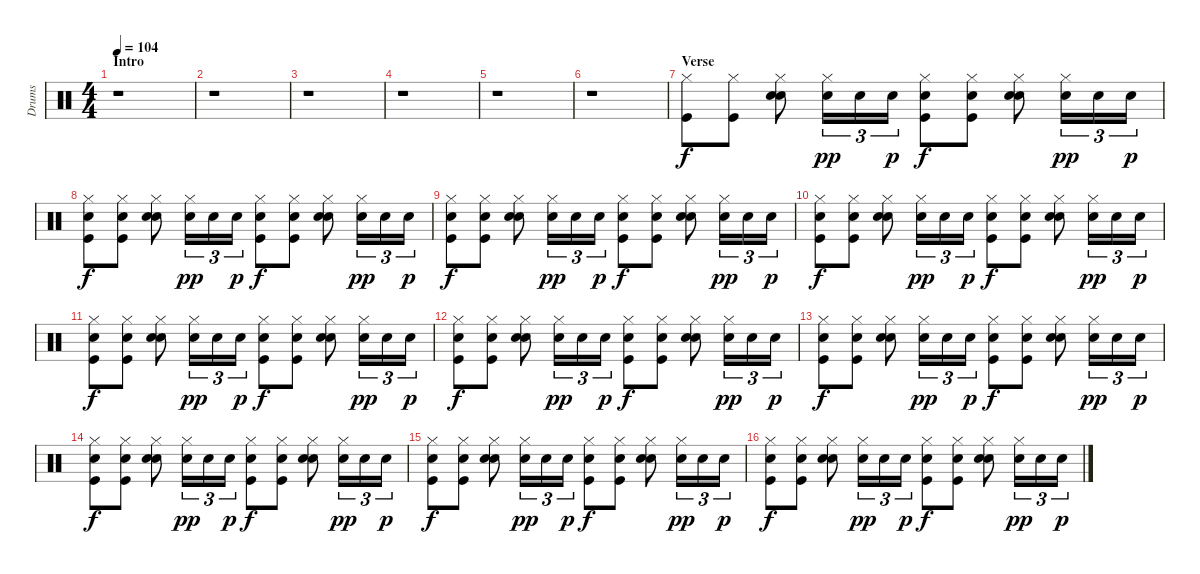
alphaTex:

\track ("Drums" "Drums") {instrument percussion}
\staff {score}
\articulation defaults
\ts (4 4)
\section ("" "Intro")
\tempo 104
\clef neutral
\ks c
r.1{dy f} |
r.1 |
r.1 |
r.1 |
r.1 |
r.1 |
\section ("" "Verse")
("Hi-Hat (closed)" "Kick (hit)").8 ("Hi-Hat (closed)" "Kick (hit)").8 ("Hi-Hat (closed)" "Hand Clap (hit)" "Electric Snare (hit)").8 ("Hi-Hat (closed)" "Electric Snare (hit)").16{tu (3 2) dy pp} "Electric Snare (hit)".16{tu (3 2)} "Electric Snare (hit)".16{tu (3 2) dy p} ("Hi-Hat (closed)" "Electric Snare (hit)" "Kick (hit)").8{dy f} ("Hi-Hat (closed)" "Electric Snare (hit)" "Kick (hit)").8 ("Hi-Hat (closed)" "Hand Clap (hit)" "Electric Snare (hit)").8 ("Hi-Hat (closed)" "Electric Snare (hit)").16{tu (3 2) dy pp} "Electric Snare (hit)".16{tu (3 2)} "Electric Snare (hit)".16{tu (3 2) dy p} |
("Hi-Hat (closed)" "Electric Snare (hit)" "Kick (hit)").8{dy f} ("Hi-Hat (closed)" "Electric Snare (hit)" "Kick (hit)").8 ("Hi-Hat (closed)" "Hand Clap (hit)" "Electric Snare (hit)").8 ("Hi-Hat (closed)" "Electric Snare (hit)").16{tu (3 2) dy pp} "Electric Snare (hit)".16{tu (3 2)} "Electric Snare (hit)".16{tu (3 2) dy p} ("Hi-Hat (closed)" "Electric Snare (hit)" "Kick (hit)").8{dy f} ("Hi-Hat (closed)" "Electric Snare (hit)" "Kick (hit)").8 ("Hi-Hat (closed)" "Hand Clap (hit)" "Electric Snare (hit)").8 ("Hi-Hat (closed)" "Electric Snare (hit)").16{tu (3 2) dy pp} "Electric Snare (hit)".16{tu (3 2)} "Electric Snare (hit)".16{tu (3 2) dy p} |
("Hi-Hat (closed)" "Electric Snare (hit)" "Kick (hit)").8{dy f} ("Hi-Hat (closed)" "Electric Snare (hit)" "Kick (hit)").8 ("Hi-Hat (closed)" "Hand Clap (hit)" "Electric Snare (hit)").8 ("Hi-Hat (closed)" "Electric Snare (hit)").16{tu (3 2) dy pp} "Electric Snare (hit)".16{tu (3 2)} "Electric Snare (hit)".16{tu (3 2) dy p} ("Hi-Hat (closed)" "Electric Snare (hit)" "Kick (hit)").8{dy f} ("Hi-Hat (closed)" "Electric Snare (hit)" "Kick (hit)").8 ("Hi-Hat (closed)" "Hand Clap (hit)" "Electric Snare (hit)").8 ("Hi-Hat (closed)" "Electric Snare (hit)").16{tu (3 2) dy pp} "Electric Snare (hit)".16{tu (3 2)} "Electric Snare (hit)".16{tu (3 2) dy p} |
("Hi-Hat (closed)" "Electric Snare (hit)" "Kick (hit)").8{dy f} ("Hi-Hat (closed)" "Electric Snare (hit)" "Kick (hit)").8 ("Hi-Hat (closed)" "Hand Clap (hit)" "Electric Snare (hit)").8 ("Hi-Hat (closed)" "Electric Snare (hit)").16{tu (3 2) dy pp} "Electric Snare (hit)".16{tu (3 2)} "Electric Snare (hit)".16{tu (3 2) dy p} ("Hi-Hat (closed)" "Electric Snare (hit)" "Kick (hit)").8{dy f} ("Hi-Hat (closed)" "Electric Snare (hit)" "Kick (hit)").8 ("Hi-Hat (closed)" "Hand Clap (hit)" "Electric Snare (hit)").8 ("Hi-Hat (closed)" "Electric Snare (hit)").16{tu (3 2) dy pp} "Electric Snare (hit)".16{tu (3 2)} "Electric Snare (hit)".16{tu (3 2) dy p} |
("Hi-Hat (closed)" "Electric Snare (hit)" "Kick (hit)").8{dy f} ("Hi-Hat (closed)" "Electric Snare (hit)" "Kick (hit)").8 ("Hi-Hat (closed)" "Hand Clap (hit)" "Electric Snare (hit)").8 ("Hi-Hat (closed)" "Electric Snare (hit)").16{tu (3 2) dy pp} "Electric Snare (hit)".16{tu (3 2)} "Electric Snare (hit)".16{tu (3 2) dy p} ("Hi-Hat (closed)" "Electric Snare (hit)" "Kick (hit)").8{dy f} ("Hi-Hat (closed)" "Electric Snare (hit)" "Kick (hit)").8 ("Hi-Hat (closed)" "Hand Clap (hit)" "Electric Snare (hit)").8 ("Hi-Hat (closed)" "Electric Snare (hit)").16{tu (3 2) dy pp} "Electric Snare (hit)".16{tu (3 2)} "Electric Snare (hit)".16{tu (3 2) dy p} |
("Hi-Hat (closed)" "Electric Snare (hit)" "Kick (hit)").8{dy f} ("Hi-Hat (closed)" "Electric Snare (hit)" "Kick (hit)").8 ("Hi-Hat (closed)" "Hand Clap (hit)" "Electric Snare (hit)").8 ("Hi-Hat (closed)" "Electric Snare (hit)").16{tu (3 2) dy pp} "Electric Snare (hit)".16{tu (3 2)} "Electric Snare (hit)".16{tu (3 2) dy p} ("Hi-Hat (closed)" "Electric Snare (hit)" "Kick (hit)").8{dy f} ("Hi-Hat (closed)" "Electric Snare (hit)" "Kick (hit)").8 ("Hi-Hat (closed)" "Hand Clap (hit)" "Electric Snare (hit)").8 ("Hi-Hat (closed)" "Electric Snare (hit)").16{tu (3 2) dy pp} "Electric Snare (hit)".16{tu (3 2)} "Electric Snare (hit)".16{tu (3 2) dy p} |
("Hi-Hat (closed)" "Electric Snare (hit)" "Kick (hit)").8{dy f} ("Hi-Hat (closed)" "Electric Snare (hit)" "Kick (hit)").8 ("Hi-Hat (closed)" "Hand Clap (hit)" "Electric Snare (hit)").8 ("Hi-Hat (closed)" "Electric Snare (hit)").16{tu (3 2) dy pp} "Electric Snare (hit)".16{tu (3 2)} "Electric Snare (hit)".16{tu (3 2) dy p} ("Hi-Hat (closed)" "Electric Snare (hit)" "Kick (hit)").8{dy f} ("Hi-Hat (closed)" "Electric Snare (hit)" "Kick (hit)").8 ("Hi-Hat (closed)" "Hand Clap (hit)" "Electric Snare (hit)").8 ("Hi-Hat (closed)" "Electric Snare (hit)").16{tu (3 2) dy pp} "Electric Snare (hit)".16{tu (3 2)} "Electric Snare (hit)".16{tu (3 2) dy p} |
("Hi-Hat (closed)" "Electric Snare (hit)" "Kick (hit)").8{dy f} ("Hi-Hat (closed)" "Electric Snare (hit)" "Kick (hit)").8 ("Hi-Hat (closed)" "Hand Clap (hit)" "Electric Snare (hit)").8 ("Hi-Hat (closed)" "Electric Snare (hit)").16{tu (3 2) dy pp} "Electric Snare (hit)".16{tu (3 2)} "Electric Snare (hit)".16{tu (3 2) dy p} ("Hi-Hat (closed)" "Electric Snare (hit)" "Kick (hit)").8{dy f} ("Hi-Hat (closed)" "Electric Snare (hit)" "Kick (hit)").8 ("Hi-Hat (closed)" "Hand Clap (hit)" "Electric Snare (hit)").8 ("Hi-Hat (closed)" "Electric Snare (hit)").16{tu (3 2) dy pp} "Electric Snare (hit)".16{tu (3 2)} "Electric Snare (hit)".16{tu (3 2) dy p} |
("Hi-Hat (closed)" "Electric Snare (hit)" "Kick (hit)").8{dy f} ("Hi-Hat (closed)" "Electric Snare (hit)" "Kick (hit)").8 ("Hi-Hat (closed)" "Hand Clap (hit)" "Electric Snare (hit)").8 ("Hi-Hat (closed)" "Electric Snare (hit)").16{tu (3 2) dy pp} "Electric Snare (hit)".16{tu (3 2)} "Electric Snare (hit)".16{tu (3 2) dy p} ("Hi-Hat (closed)" "Electric Snare (hit)" "Kick (hit)").8{dy f} ("Hi-Hat (closed)" "Electric Snare (hit)" "Kick (hit)").8 ("Hi-Hat (closed)" "Hand Clap (hit)" "Electric Snare (hit)").8 ("Hi-Hat (closed)" "Electric Snare (hit)").16{tu (3 2) dy pp} "Electric Snare (hit)".16{tu (3 2)} "Electric Snare (hit)".16{tu (3 2) dy p} |
("Hi-Hat (closed)" "Electric Snare (hit)" "Kick (hit)").8{dy f} ("Hi-Hat (closed)" "Electric Snare (hit)" "Kick (hit)").8 ("Hi-Hat (closed)" "Hand Clap (hit)" "Electric Snare (hit)").8 ("Hi-Hat (closed)" "Electric Snare (hit)").16{tu (3 2) dy pp} "Electric Snare (hit)".16{tu (3 2)} "Electric Snare (hit)".16{tu (3 2) dy p} ("Hi-Hat (closed)" "Electric Snare (hit)" "Kick (hit)").8{dy f} ("Hi-Hat (closed)" "Electric Snare (hit)" "Kick (hit)").8 ("Hi-Hat (closed)" "Hand Clap (hit)" "Electric Snare (hit)").8 ("Hi-Hat (closed)" "Electric Snare (hit)").16{tu (3 2) dy pp} "Electric Snare (hit)".16{tu (3 2)} "Electric Snare (hit)".16{tu (3 2) dy p}
